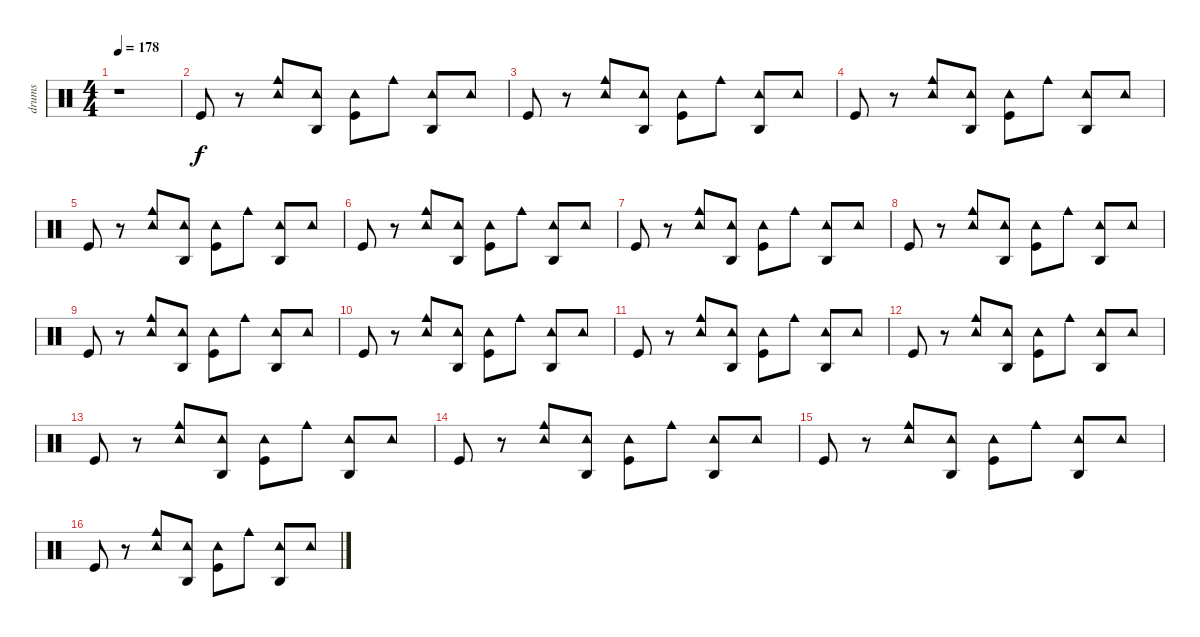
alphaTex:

\track ("drums" "drums") {instrument percussion}
\staff {score}
\articulation defaults
\ts (4 4)
\tempo 178
\clef neutral
\ks c
r.1{dy f} |
"Kick (hit)".8 r.8 ("Tambourine (hit)" "Cowbell medium (hit)").8 ("Agogo high (hit)" "Tambourine (hit)").8 ("Tambourine (hit)" "Kick (hit)").8 "Cowbell medium (hit)".8 ("Agogo high (hit)" "Tambourine (hit)").8 "Tambourine (hit)".8 |
"Kick (hit)".8 r.8 ("Tambourine (hit)" "Cowbell medium (hit)").8 ("Agogo high (hit)" "Tambourine (hit)").8 ("Tambourine (hit)" "Kick (hit)").8 "Cowbell medium (hit)".8 ("Agogo high (hit)" "Tambourine (hit)").8 "Tambourine (hit)".8 |
"Kick (hit)".8 r.8 ("Tambourine (hit)" "Cowbell medium (hit)").8 ("Agogo high (hit)" "Tambourine (hit)").8 ("Tambourine (hit)" "Kick (hit)").8 "Cowbell medium (hit)".8 ("Agogo high (hit)" "Tambourine (hit)").8 "Tambourine (hit)".8 |
"Kick (hit)".8 r.8 ("Tambourine (hit)" "Cowbell medium (hit)").8 ("Agogo high (hit)" "Tambourine (hit)").8 ("Tambourine (hit)" "Kick (hit)").8 "Cowbell medium (hit)".8 ("Agogo high (hit)" "Tambourine (hit)").8 "Tambourine (hit)".8 |
"Kick (hit)".8 r.8 ("Tambourine (hit)" "Cowbell medium (hit)").8 ("Agogo high (hit)" "Tambourine (hit)").8 ("Tambourine (hit)" "Kick (hit)").8 "Cowbell medium (hit)".8 ("Agogo high (hit)" "Tambourine (hit)").8 "Tambourine (hit)".8 |
"Kick (hit)".8 r.8 ("Tambourine (hit)" "Cowbell medium (hit)").8 ("Agogo high (hit)" "Tambourine (hit)").8 ("Tambourine (hit)" "Kick (hit)").8 "Cowbell medium (hit)".8 ("Agogo high (hit)" "Tambourine (hit)").8 "Tambourine (hit)".8 |
"Kick (hit)".8 r.8 ("Tambourine (hit)" "Cowbell medium (hit)").8 ("Agogo high (hit)" "Tambourine (hit)").8 ("Tambourine (hit)" "Kick (hit)").8 "Cowbell medium (hit)".8 ("Agogo high (hit)" "Tambourine (hit)").8 "Tambourine (hit)".8 |
"Kick (hit)".8 r.8 ("Tambourine (hit)" "Cowbell medium (hit)").8 ("Agogo high (hit)" "Tambourine (hit)").8 ("Tambourine (hit)" "Kick (hit)").8 "Cowbell medium (hit)".8 ("Agogo high (hit)" "Tambourine (hit)").8 "Tambourine (hit)".8 |
"Kick (hit)".8 r.8 ("Tambourine (hit)" "Cowbell medium (hit)").8 ("Agogo high (hit)" "Tambourine (hit)").8 ("Tambourine (hit)" "Kick (hit)").8 "Cowbell medium (hit)".8 ("Agogo high (hit)" "Tambourine (hit)").8 "Tambourine (hit)".8 |
"Kick (hit)".8 r.8 ("Tambourine (hit)" "Cowbell medium (hit)").8 ("Agogo high (hit)" "Tambourine (hit)").8 ("Tambourine (hit)" "Kick (hit)").8 "Cowbell medium (hit)".8 ("Agogo high (hit)" "Tambourine (hit)").8 "Tambourine (hit)".8 |
"Kick (hit)".8 r.8 ("Tambourine (hit)" "Cowbell medium (hit)").8 ("Agogo high (hit)" "Tambourine (hit)").8 ("Tambourine (hit)" "Kick (hit)").8 "Cowbell medium (hit)".8 ("Agogo high (hit)" "Tambourine (hit)").8 "Tambourine (hit)".8 |
"Kick (hit)".8 r.8 ("Tambourine (hit)" "Cowbell medium (hit)").8 ("Agogo high (hit)" "Tambourine (hit)").8 ("Tambourine (hit)" "Kick (hit)").8 "Cowbell medium (hit)".8 ("Agogo high (hit)" "Tambourine (hit)").8 "Tambourine (hit)".8 |
"Kick (hit)".8 r.8 ("Tambourine (hit)" "Cowbell medium (hit)").8 ("Agogo high (hit)" "Tambourine (hit)").8 ("Tambourine (hit)" "Kick (hit)").8 "Cowbell medium (hit)".8 ("Agogo high (hit)" "Tambourine (hit)").8 "Tambourine (hit)".8 |
"Kick (hit)".8 r.8 ("Tambourine (hit)" "Cowbell medium (hit)").8 ("Agogo high (hit)" "Tambourine (hit)").8 ("Tambourine (hit)" "Kick (hit)").8 "Cowbell medium (hit)".8 ("Agogo high (hit)" "Tambourine (hit)").8 "Tambourine (hit)".8 |
"Kick (hit)".8 r.8 ("Tambourine (hit)" "Cowbell medium (hit)").8 ("Agogo high (hit)" "Tambourine (hit)").8 ("Tambourine (hit)" "Kick (hit)").8 "Cowbell medium (hit)".8 ("Agogo high (hit)" "Tambourine (hit)").8 "Tambourine (hit)".8
